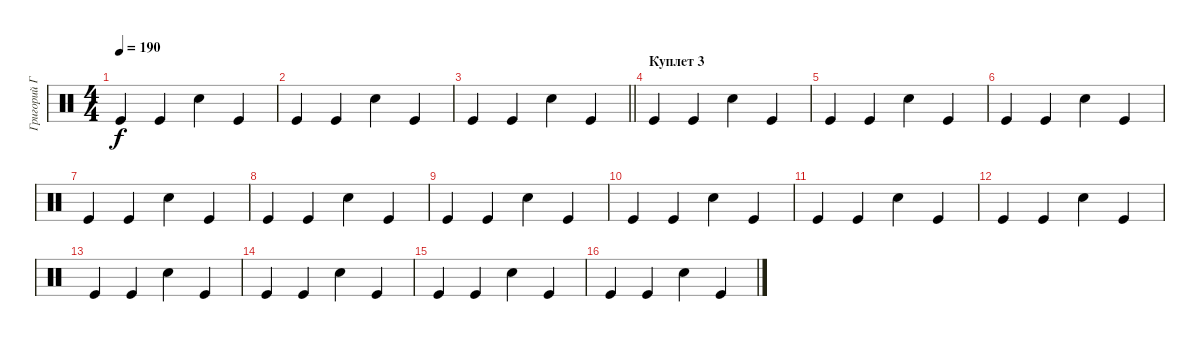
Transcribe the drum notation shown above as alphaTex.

\track ("Григорий Габерман" "Григорий Г") {instrument percussion}
\staff {score}
\articulation defaults
\ts (4 4)
\tempo 190
\clef neutral
\ks c "Kick (hit)".4{dy f} "Kick (hit)".4 "Snare (hit) 2".4 "Kick (hit)".4
|
"Kick (hit)".4 "Kick (hit)".4 "Snare (hit) 2".4 "Kick (hit)".4 |
\barLineRight lightlight "Kick (hit)".4 "Kick (hit)".4 "Snare (hit) 2".4 "Kick (hit)".4
|
\section ("" "Куплет 3")
"Kick (hit)".4 "Kick (hit)".4 "Snare (hit) 2".4 "Kick (hit)".4 |
"Kick (hit)".4 "Kick (hit)".4 "Snare (hit) 2".4 "Kick (hit)".4 |
"Kick (hit)".4 "Kick (hit)".4 "Snare (hit) 2".4 "Kick (hit)".4 |
"Kick (hit)".4 "Kick (hit)".4 "Snare (hit) 2".4 "Kick (hit)".4 |
"Kick (hit)".4 "Kick (hit)".4 "Snare (hit) 2".4 "Kick (hit)".4 |
"Kick (hit)".4 "Kick (hit)".4 "Snare (hit) 2".4 "Kick (hit)".4 |
"Kick (hit)".4 "Kick (hit)".4 "Snare (hit) 2".4 "Kick (hit)".4 |
"Kick (hit)".4 "Kick (hit)".4 "Snare (hit) 2".4 "Kick (hit)".4 |
"Kick (hit)".4 "Kick (hit)".4 "Snare (hit) 2".4 "Kick (hit)".4 |
"Kick (hit)".4 "Kick (hit)".4 "Snare (hit) 2".4 "Kick (hit)".4 |
"Kick (hit)".4 "Kick (hit)".4 "Snare (hit) 2".4 "Kick (hit)".4 |
"Kick (hit)".4 "Kick (hit)".4 "Snare (hit) 2".4 "Kick (hit)".4 |
"Kick (hit)".4 "Kick (hit)".4 "Snare (hit) 2".4 "Kick (hit)".4
